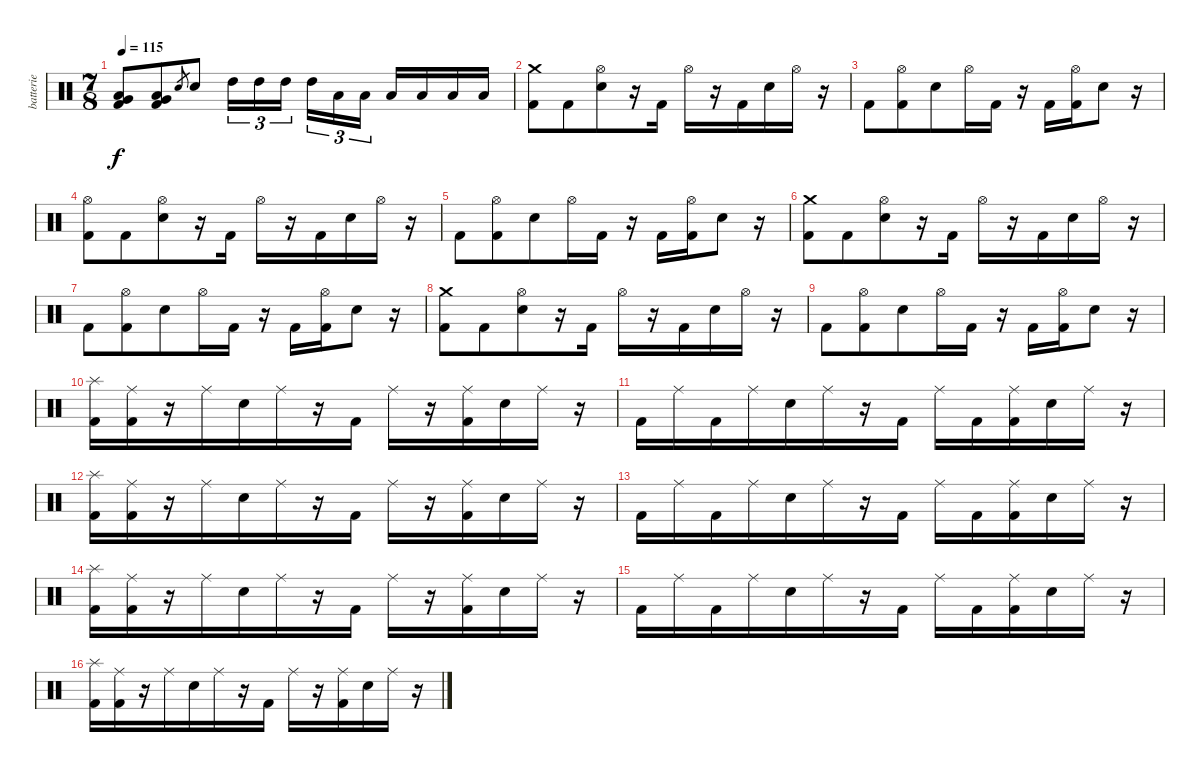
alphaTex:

\track ("batterie" "batterie") {instrument percussion}
\staff {score}
\articulation defaults
\ts (7 8)
\tempo 115
\clef neutral
\ks c
("Kick (hit) 2" "Low Floor Tom (hit)" "Very Low Tom (hit)").8{dy f} ("Kick (hit) 2" "Low Floor Tom (hit)" "Very Low Tom (hit)").8 "Electric Snare (hit)".8{gr} "Electric Snare (hit)".8 "High Tom (hit)".16{tu (3 2)} "High Tom (hit)".16{tu (3 2)} "High Tom (hit)".16{tu (3 2)} "High Tom (hit)".16{tu (3 2)} "Low Tom (hit)".16{tu (3 2)} "Low Tom (hit)".16{tu (3 2)} "Low Tom (hit)".16 "Low Tom (hit)".16 "Low Floor Tom (hit)".16 "Low Floor Tom (hit)".16 |
("Kick (hit) 2" "Crash medium (hit)").8 "Kick (hit) 2".8 ("Electric Snare (hit)" "Hi-Hat (open)").8 r.16 "Kick (hit) 2".16 "Hi-Hat (open)".16 r.16 "Kick (hit) 2".16 "Electric Snare (hit)".16 "Hi-Hat (open)".16 r.16 |
"Kick (hit) 2".8 ("Kick (hit) 2" "Hi-Hat (open)").8 "Electric Snare (hit)".8 "Hi-Hat (open)".16 "Kick (hit) 2".16 r.16 "Kick (hit) 2".16 ("Kick (hit) 2" "Hi-Hat (open)").16 "Electric Snare (hit)".8 r.16 |
("Kick (hit) 2" "Hi-Hat (open)").8 "Kick (hit) 2".8 ("Electric Snare (hit)" "Hi-Hat (open)").8 r.16 "Kick (hit) 2".16 "Hi-Hat (open)".16 r.16 "Kick (hit) 2".16 "Electric Snare (hit)".16 "Hi-Hat (open)".16 r.16 |
"Kick (hit) 2".8 ("Kick (hit) 2" "Hi-Hat (open)").8 "Electric Snare (hit)".8 "Hi-Hat (open)".16 "Kick (hit) 2".16 r.16 "Kick (hit) 2".16 ("Kick (hit) 2" "Hi-Hat (open)").16 "Electric Snare (hit)".8 r.16 |
("Kick (hit) 2" "Crash medium (hit)").8 "Kick (hit) 2".8 ("Electric Snare (hit)" "Hi-Hat (open)").8 r.16 "Kick (hit) 2".16 "Hi-Hat (open)".16 r.16 "Kick (hit) 2".16 "Electric Snare (hit)".16 "Hi-Hat (open)".16 r.16 |
"Kick (hit) 2".8 ("Kick (hit) 2" "Hi-Hat (open)").8 "Electric Snare (hit)".8 "Hi-Hat (open)".16 "Kick (hit) 2".16 r.16 "Kick (hit) 2".16 ("Kick (hit) 2" "Hi-Hat (open)").16 "Electric Snare (hit)".8 r.16 |
("Kick (hit) 2" "Crash medium (hit)").8 "Kick (hit) 2".8 ("Electric Snare (hit)" "Hi-Hat (open)").8 r.16 "Kick (hit) 2".16 "Hi-Hat (open)".16 r.16 "Kick (hit) 2".16 "Electric Snare (hit)".16 "Hi-Hat (open)".16 r.16 |
"Kick (hit) 2".8 ("Kick (hit) 2" "Hi-Hat (open)").8 "Electric Snare (hit)".8 "Hi-Hat (open)".16 "Kick (hit) 2".16 r.16 "Kick (hit) 2".16 ("Kick (hit) 2" "Hi-Hat (open)").16 "Electric Snare (hit)".8 r.16 |
("Kick (hit) 2" "Splash (hit)").16 ("Kick (hit) 2" "Ride (middle)").16 r.16 "Ride (middle)".16 "Electric Snare (hit)".16 "Ride (middle)".16 r.16 "Kick (hit) 2".16 "Ride (middle)".16 r.16 ("Kick (hit) 2" "Ride (middle)").16 "Electric Snare (hit)".16 "Ride (middle)".16 r.16 |
"Kick (hit) 2".16 "Ride (middle)".16 "Kick (hit) 2".16 "Ride (middle)".16 "Electric Snare (hit)".16 "Ride (middle)".16 r.16 "Kick (hit) 2".16 "Ride (middle)".16 "Kick (hit) 2".16 ("Kick (hit) 2" "Ride (middle)").16 "Electric Snare (hit)".16 "Ride (middle)".16 r.16 |
("Kick (hit) 2" "Splash (hit)").16 ("Kick (hit) 2" "Ride (middle)").16 r.16 "Ride (middle)".16 "Electric Snare (hit)".16 "Ride (middle)".16 r.16 "Kick (hit) 2".16 "Ride (middle)".16 r.16 ("Kick (hit) 2" "Ride (middle)").16 "Electric Snare (hit)".16 "Ride (middle)".16 r.16 |
"Kick (hit) 2".16 "Ride (middle)".16 "Kick (hit) 2".16 "Ride (middle)".16 "Electric Snare (hit)".16 "Ride (middle)".16 r.16 "Kick (hit) 2".16 "Ride (middle)".16 "Kick (hit) 2".16 ("Kick (hit) 2" "Ride (middle)").16 "Electric Snare (hit)".16 "Ride (middle)".16 r.16 |
("Kick (hit) 2" "Splash (hit)").16 ("Kick (hit) 2" "Ride (middle)").16 r.16 "Ride (middle)".16 "Electric Snare (hit)".16 "Ride (middle)".16 r.16 "Kick (hit) 2".16 "Ride (middle)".16 r.16 ("Kick (hit) 2" "Ride (middle)").16 "Electric Snare (hit)".16 "Ride (middle)".16 r.16 |
"Kick (hit) 2".16 "Ride (middle)".16 "Kick (hit) 2".16 "Ride (middle)".16 "Electric Snare (hit)".16 "Ride (middle)".16 r.16 "Kick (hit) 2".16 "Ride (middle)".16 "Kick (hit) 2".16 ("Kick (hit) 2" "Ride (middle)").16 "Electric Snare (hit)".16 "Ride (middle)".16 r.16 |
("Kick (hit) 2" "Splash (hit)").16 ("Kick (hit) 2" "Ride (middle)").16 r.16 "Ride (middle)".16 "Electric Snare (hit)".16 "Ride (middle)".16 r.16 "Kick (hit) 2".16 "Ride (middle)".16 r.16 ("Kick (hit) 2" "Ride (middle)").16 "Electric Snare (hit)".16 "Ride (middle)".16 r.16
